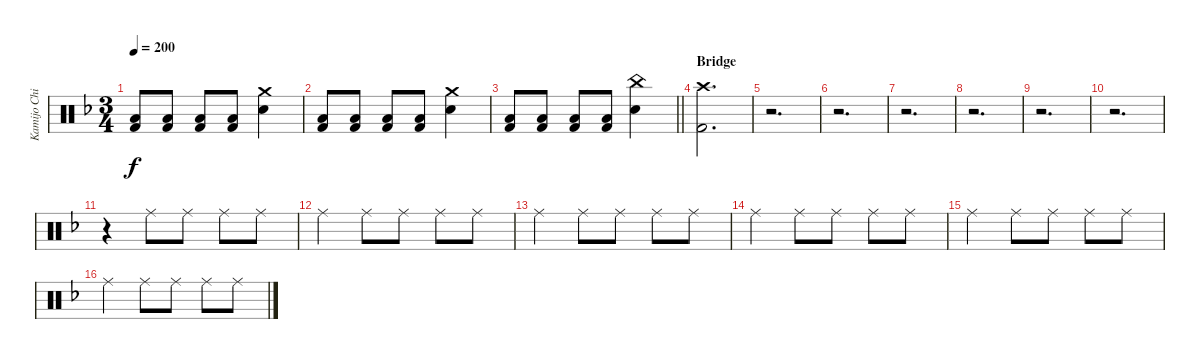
\track ("Kamijo Chihiro" "Kamijo Chi") {instrument percussion}
\staff {score}
\articulation defaults
\ts (3 4)
\tempo 200
\clef neutral
\ks dminor
("Low Floor Tom (hit)" "Kick (hit) 2").8{dy f} ("Low Floor Tom (hit)" "Kick (hit) 2").8 ("Low Floor Tom (hit)" "Kick (hit) 2").8 ("Low Floor Tom (hit)" "Kick (hit) 2").8 ("Crash medium (hit)" "Snare (hit) 2").4 |
("Low Floor Tom (hit)" "Kick (hit) 2").8 ("Low Floor Tom (hit)" "Kick (hit) 2").8 ("Low Floor Tom (hit)" "Kick (hit) 2").8 ("Low Floor Tom (hit)" "Kick (hit) 2").8 ("Crash medium (hit)" "Snare (hit) 2").4 |
\barLineRight lightlight
("Low Floor Tom (hit)" "Kick (hit) 2").8 ("Low Floor Tom (hit)" "Kick (hit) 2").8 ("Low Floor Tom (hit)" "Kick (hit) 2").8 ("Low Floor Tom (hit)" "Kick (hit) 2").8 ("China (hit)" "Snare (hit) 2").4 |
\section ("" "Bridge")
("Crash high (hit)" "Kick (hit) 2").2{d} |
r.2{d} |
r.2{d} |
r.2{d} |
r.2{d} |
r.2{d} |
r.2{d} |
r.4{volume 0} "Ride (middle)".8{volume 10} "Ride (middle)".8 "Ride (middle)".8 "Ride (middle)".8 |
"Ride (middle)".4 "Ride (middle)".8 "Ride (middle)".8 "Ride (middle)".8 "Ride (middle)".8 |
"Ride (middle)".4 "Ride (middle)".8 "Ride (middle)".8 "Ride (middle)".8 "Ride (middle)".8 |
"Ride (middle)".4 "Ride (middle)".8 "Ride (middle)".8 "Ride (middle)".8 "Ride (middle)".8 |
"Ride (middle)".4 "Ride (middle)".8 "Ride (middle)".8 "Ride (middle)".8 "Ride (middle)".8 |
"Ride (middle)".4 "Ride (middle)".8 "Ride (middle)".8 "Ride (middle)".8 "Ride (middle)".8
